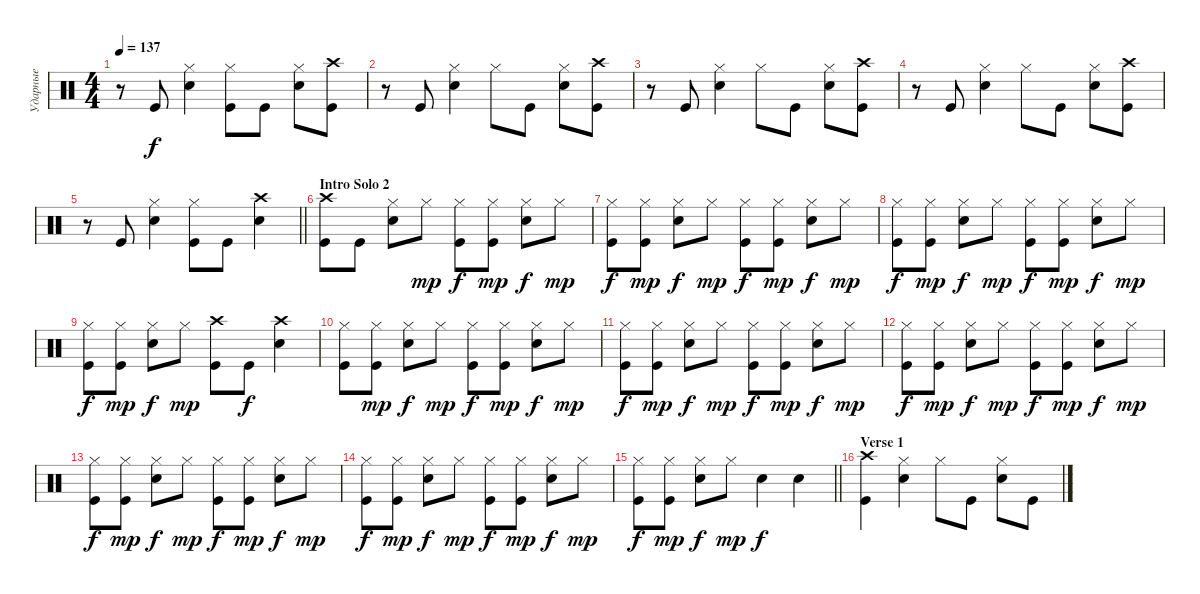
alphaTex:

\track ("Ударные" "Ударные") {instrument percussion}
\staff {score}
\articulation defaults
\ts (4 4)
\tempo 137
\clef neutral
\ks aminor
r.8{dy f} "Kick (hit)".8 ("Snare (hit) 2" "Hi-Hat (closed)").4 ("Hi-Hat (closed)" "Kick (hit)").8 "Kick (hit)".8 ("Snare (hit) 2" "Hi-Hat (closed)").8 ("Kick (hit)" "Crash high (hit)").8 |
r.8 "Kick (hit)".8 ("Snare (hit) 2" "Hi-Hat (closed)").4 "Hi-Hat (closed)".8 "Kick (hit)".8 ("Snare (hit) 2" "Hi-Hat (closed)").8 ("Kick (hit)" "Crash high (hit)").8 |
r.8 "Kick (hit)".8 ("Snare (hit) 2" "Hi-Hat (closed)").4 "Hi-Hat (closed)".8 "Kick (hit)".8 ("Snare (hit) 2" "Hi-Hat (closed)").8 ("Kick (hit)" "Crash high (hit)").8 |
r.8 "Kick (hit)".8 ("Snare (hit) 2" "Hi-Hat (closed)").4 "Hi-Hat (closed)".8 "Kick (hit)".8 ("Snare (hit) 2" "Hi-Hat (closed)").8 ("Kick (hit)" "Crash high (hit)").8 |
\barLineRight lightlight
r.8 "Kick (hit)".8 ("Snare (hit) 2" "Hi-Hat (closed)").4 ("Hi-Hat (closed)" "Kick (hit)").8 "Kick (hit)".8 ("Snare (hit) 2" "Crash high (hit)").4 |
\section ("" "Intro Solo 2")
("Kick (hit)" "Crash high (hit)").8 "Kick (hit)".8 ("Snare (hit) 2" "Hi-Hat (closed)").8 "Hi-Hat (closed)".8{dy mp} ("Hi-Hat (closed)" "Kick (hit)").8{dy f} ("Hi-Hat (closed)" "Kick (hit)").8{dy mp} ("Hi-Hat (closed)" "Snare (hit) 2").8{dy f} "Hi-Hat (closed)".8{dy mp} |
("Kick (hit)" "Hi-Hat (closed)").8{dy f} ("Kick (hit)" "Hi-Hat (closed)").8{dy mp} ("Snare (hit) 2" "Hi-Hat (closed)").8{dy f} "Hi-Hat (closed)".8{dy mp} ("Hi-Hat (closed)" "Kick (hit)").8{dy f} ("Hi-Hat (closed)" "Kick (hit)").8{dy mp} ("Hi-Hat (closed)" "Snare (hit) 2").8{dy f} "Hi-Hat (closed)".8{dy mp} |
("Kick (hit)" "Hi-Hat (closed)").8{dy f} ("Kick (hit)" "Hi-Hat (closed)").8{dy mp} ("Snare (hit) 2" "Hi-Hat (closed)").8{dy f} "Hi-Hat (closed)".8{dy mp} ("Hi-Hat (closed)" "Kick (hit)").8{dy f} ("Hi-Hat (closed)" "Kick (hit)").8{dy mp} ("Hi-Hat (closed)" "Snare (hit) 2").8{dy f} "Hi-Hat (closed)".8{dy mp} |
("Kick (hit)" "Hi-Hat (closed)").8{dy f} ("Kick (hit)" "Hi-Hat (closed)").8{dy mp} ("Snare (hit) 2" "Hi-Hat (closed)").8{dy f} "Hi-Hat (closed)".8{dy mp} ("Crash high (hit)" "Kick (hit)").8 "Kick (hit)".8{dy f} ("Crash high (hit)" "Snare (hit) 2").4 |
("Kick (hit)" "Hi-Hat (closed)").8 ("Kick (hit)" "Hi-Hat (closed)").8{dy mp} ("Snare (hit) 2" "Hi-Hat (closed)").8{dy f} "Hi-Hat (closed)".8{dy mp} ("Hi-Hat (closed)" "Kick (hit)").8{dy f} ("Hi-Hat (closed)" "Kick (hit)").8{dy mp} ("Hi-Hat (closed)" "Snare (hit) 2").8{dy f} "Hi-Hat (closed)".8{dy mp} |
("Kick (hit)" "Hi-Hat (closed)").8{dy f} ("Kick (hit)" "Hi-Hat (closed)").8{dy mp} ("Snare (hit) 2" "Hi-Hat (closed)").8{dy f} "Hi-Hat (closed)".8{dy mp} ("Hi-Hat (closed)" "Kick (hit)").8{dy f} ("Hi-Hat (closed)" "Kick (hit)").8{dy mp} ("Hi-Hat (closed)" "Snare (hit) 2").8{dy f} "Hi-Hat (closed)".8{dy mp} |
("Kick (hit)" "Hi-Hat (closed)").8{dy f} ("Kick (hit)" "Hi-Hat (closed)").8{dy mp} ("Snare (hit) 2" "Hi-Hat (closed)").8{dy f} "Hi-Hat (closed)".8{dy mp} ("Hi-Hat (closed)" "Kick (hit)").8{dy f} ("Hi-Hat (closed)" "Kick (hit)").8{dy mp} ("Hi-Hat (closed)" "Snare (hit) 2").8{dy f} "Hi-Hat (closed)".8{dy mp} |
("Kick (hit)" "Hi-Hat (closed)").8{dy f} ("Kick (hit)" "Hi-Hat (closed)").8{dy mp} ("Snare (hit) 2" "Hi-Hat (closed)").8{dy f} "Hi-Hat (closed)".8{dy mp} ("Hi-Hat (closed)" "Kick (hit)").8{dy f} ("Hi-Hat (closed)" "Kick (hit)").8{dy mp} ("Hi-Hat (closed)" "Snare (hit) 2").8{dy f} "Hi-Hat (closed)".8{dy mp} |
("Kick (hit)" "Hi-Hat (closed)").8{dy f} ("Kick (hit)" "Hi-Hat (closed)").8{dy mp} ("Snare (hit) 2" "Hi-Hat (closed)").8{dy f} "Hi-Hat (closed)".8{dy mp} ("Hi-Hat (closed)" "Kick (hit)").8{dy f} ("Hi-Hat (closed)" "Kick (hit)").8{dy mp} ("Hi-Hat (closed)" "Snare (hit) 2").8{dy f} "Hi-Hat (closed)".8{dy mp} |
\barLineRight lightlight
("Kick (hit)" "Hi-Hat (closed)").8{dy f} ("Kick (hit)" "Hi-Hat (closed)").8{dy mp} ("Snare (hit) 2" "Hi-Hat (closed)").8{dy f} "Hi-Hat (closed)".8{dy mp} "Snare (hit) 2".4{dy f} "Snare (hit) 2".4 |
\section ("" "Verse 1")
("Kick (hit)" "Crash high (hit)").4 ("Snare (hit) 2" "Hi-Hat (closed)").4 "Hi-Hat (closed)".8 "Kick (hit)".8 ("Snare (hit) 2" "Hi-Hat (closed)").8 "Kick (hit)".8
